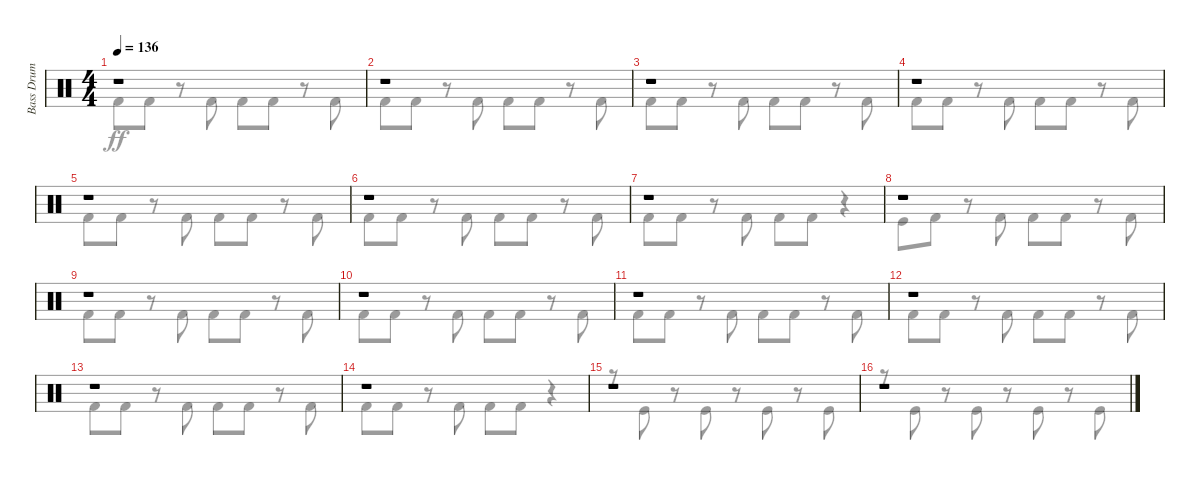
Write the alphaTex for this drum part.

\track ("Bass Drum" "Bass Drum") {instrument percussion}
\staff {score}
\articulation defaults
\voice
\ts (4 4)
\tempo 136
\clef neutral
\ks c
r.1{dy f} |
r.1 |
r.1 |
r.1 |
r.1 |
r.1 |
r.1 |
r.1 |
r.1 |
r.1 |
r.1 |
r.1 |
r.1 |
r.1 |
r.1 |
r.1
\voice
\clef neutral
\ottava regular
\simile none
\ks c "Kick (hit) 2".8{dy ff} "Kick (hit) 2".8
r.8 "Kick (hit) 2".8 "Kick (hit) 2".8 "Kick (hit) 2".8 r.8 "Kick (hit) 2".8 |
"Kick (hit) 2".8 "Kick (hit) 2".8 r.8 "Kick (hit) 2".8 "Kick (hit) 2".8 "Kick (hit) 2".8 r.8 "Kick (hit) 2".8 |
"Kick (hit) 2".8 "Kick (hit) 2".8 r.8 "Kick (hit) 2".8 "Kick (hit) 2".8 "Kick (hit) 2".8 r.8 "Kick (hit) 2".8 |
"Kick (hit) 2".8 "Kick (hit) 2".8 r.8 "Kick (hit) 2".8 "Kick (hit) 2".8 "Kick (hit) 2".8 r.8 "Kick (hit) 2".8 |
"Kick (hit) 2".8 "Kick (hit) 2".8 r.8 "Kick (hit) 2".8 "Kick (hit) 2".8 "Kick (hit) 2".8 r.8 "Kick (hit) 2".8 |
"Kick (hit) 2".8 "Kick (hit) 2".8 r.8 "Kick (hit) 2".8 "Kick (hit) 2".8 "Kick (hit) 2".8 r.8 "Kick (hit) 2".8 |
"Kick (hit) 2".8 "Kick (hit) 2".8 r.8 "Kick (hit) 2".8 "Kick (hit) 2".8 "Kick (hit) 2".8 r.4 |
"Kick (hit)".8 "Kick (hit) 2".8 r.8 "Kick (hit) 2".8 "Kick (hit) 2".8 "Kick (hit) 2".8 r.8 "Kick (hit) 2".8 |
"Kick (hit) 2".8 "Kick (hit) 2".8 r.8 "Kick (hit) 2".8 "Kick (hit) 2".8 "Kick (hit) 2".8 r.8 "Kick (hit) 2".8 |
"Kick (hit) 2".8 "Kick (hit) 2".8 r.8 "Kick (hit) 2".8 "Kick (hit) 2".8 "Kick (hit) 2".8 r.8 "Kick (hit) 2".8 |
"Kick (hit) 2".8 "Kick (hit) 2".8 r.8 "Kick (hit) 2".8 "Kick (hit) 2".8 "Kick (hit) 2".8 r.8 "Kick (hit) 2".8 |
"Kick (hit) 2".8 "Kick (hit) 2".8 r.8 "Kick (hit) 2".8 "Kick (hit) 2".8 "Kick (hit) 2".8 r.8 "Kick (hit) 2".8 |
"Kick (hit) 2".8 "Kick (hit) 2".8 r.8 "Kick (hit) 2".8 "Kick (hit) 2".8 "Kick (hit) 2".8 r.8 "Kick (hit) 2".8 |
"Kick (hit) 2".8 "Kick (hit) 2".8 r.8 "Kick (hit) 2".8 "Kick (hit) 2".8 "Kick (hit) 2".8 r.4 |
r.8 "Kick (hit)".8 r.8 "Kick (hit)".8 r.8 "Kick (hit)".8 r.8 "Kick (hit)".8 |
r.8 "Kick (hit)".8 r.8 "Kick (hit)".8 r.8 "Kick (hit)".8 r.8 "Kick (hit)".8
